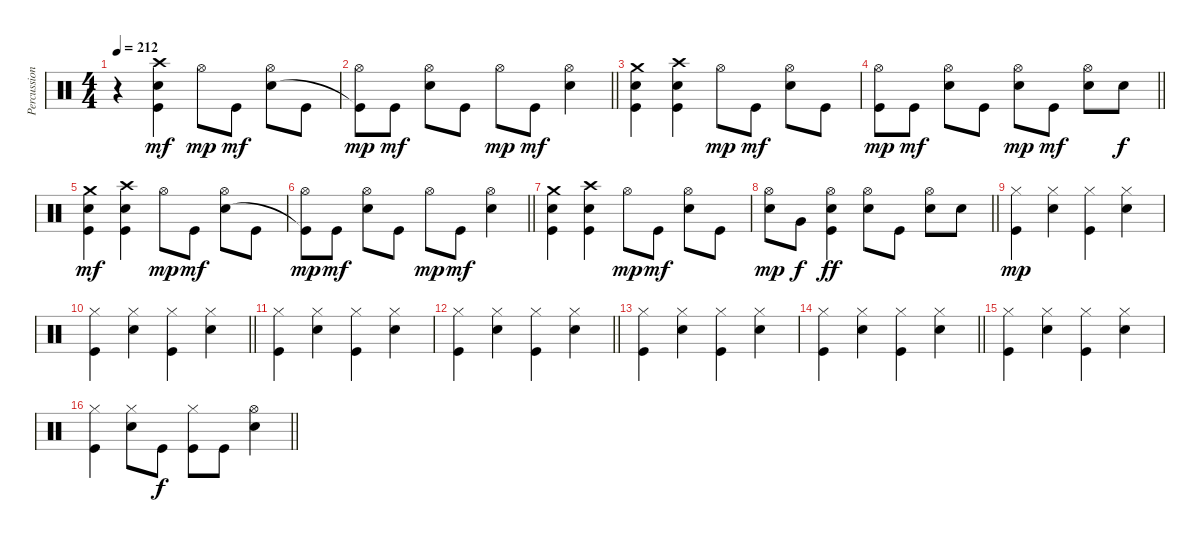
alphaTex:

\track ("Percussion" "Percussion") {instrument percussion}
\staff {score}
\articulation defaults
\ts (4 4)
\tempo 212
\clef neutral
\ks c
r.4{dy f} ("Crash high (hit)" "Snare (hit) 2" "Kick (hit)").4{dy mf} "Hi-Hat (open)".8{dy mp} "Kick (hit)".8{dy mf} ("Hi-Hat (open)" "Snare (hit) 2").8 "Kick (hit)".8 |
\barLineRight lightlight
("Hi-Hat (open)" "Kick (hit)"{t}).8{dy mp} "Kick (hit)".8{dy mf} ("Hi-Hat (open)" "Snare (hit) 2").8 "Kick (hit)".8 "Hi-Hat (open)".8{dy mp} "Kick (hit)".8{dy mf} ("Hi-Hat (open)" "Snare (hit) 2").4 |
("Crash medium (hit)" "Snare (hit) 2" "Kick (hit)").4 ("Crash high (hit)" "Snare (hit) 2" "Kick (hit)").4 "Hi-Hat (open)".8{dy mp} "Kick (hit)".8{dy mf} ("Hi-Hat (open)" "Snare (hit) 2").8 "Kick (hit)".8 |
\barLineRight lightlight
("Hi-Hat (open)" "Kick (hit)").8{dy mp} "Kick (hit)".8{dy mf} ("Hi-Hat (open)" "Snare (hit) 2").8 "Kick (hit)".8 ("Hi-Hat (open)" "Snare (hit) 2").8{dy mp} "Kick (hit)".8{dy mf} ("Hi-Hat (open)" "Snare (hit) 2").8 "Snare (hit) 2".8{dy f} |
("Crash medium (hit)" "Snare (hit) 2" "Kick (hit)").4{dy mf} ("Crash high (hit)" "Snare (hit) 2" "Kick (hit)").4 "Hi-Hat (open)".8{dy mp} "Kick (hit)".8{dy mf} ("Hi-Hat (open)" "Snare (hit) 2").8 "Kick (hit)".8 |
\barLineRight lightlight
("Hi-Hat (open)" "Kick (hit)"{t}).8{dy mp} "Kick (hit)".8{dy mf} ("Hi-Hat (open)" "Snare (hit) 2").8 "Kick (hit)".8 "Hi-Hat (open)".8{dy mp} "Kick (hit)".8{dy mf} ("Hi-Hat (open)" "Snare (hit) 2").4 |
("Crash medium (hit)" "Snare (hit) 2" "Kick (hit)").4 ("Crash high (hit)" "Snare (hit) 2" "Kick (hit)").4 "Hi-Hat (open)".8{dy mp} "Kick (hit)".8{dy mf} ("Hi-Hat (open)" "Snare (hit) 2").8 "Kick (hit)".8 |
\barLineRight lightlight
("Hi-Hat (open)" "Snare (hit) 2").8{dy mp} "Very Low Tom (hit)".8{dy f} ("Hi-Hat (open)" "Snare (hit) 2" "Kick (hit)").4{dy ff} ("Hi-Hat (open)" "Snare (hit) 2").8 "Kick (hit)".8 ("Hi-Hat (open)" "Snare (hit) 2").8 "Snare (hit) 2".8 |
("Hi-Hat (closed)" "Kick (hit)").4{dy mp} ("Hi-Hat (closed)" "Snare (hit) 2").4 ("Hi-Hat (closed)" "Kick (hit)").4 ("Hi-Hat (closed)" "Snare (hit) 2").4 |
\barLineRight lightlight
("Hi-Hat (closed)" "Kick (hit)").4 ("Hi-Hat (closed)" "Snare (hit) 2").4 ("Hi-Hat (closed)" "Kick (hit)").4 ("Hi-Hat (closed)" "Snare (hit) 2").4 |
("Hi-Hat (closed)" "Kick (hit)").4 ("Hi-Hat (closed)" "Snare (hit) 2").4 ("Hi-Hat (closed)" "Kick (hit)").4 ("Hi-Hat (closed)" "Snare (hit) 2").4 |
\barLineRight lightlight
("Hi-Hat (closed)" "Kick (hit)").4 ("Hi-Hat (closed)" "Snare (hit) 2").4 ("Hi-Hat (closed)" "Kick (hit)").4 ("Hi-Hat (closed)" "Snare (hit) 2").4 |
("Hi-Hat (closed)" "Kick (hit)").4 ("Hi-Hat (closed)" "Snare (hit) 2").4 ("Hi-Hat (closed)" "Kick (hit)").4 ("Hi-Hat (closed)" "Snare (hit) 2").4 |
\barLineRight lightlight
("Hi-Hat (closed)" "Kick (hit)").4 ("Hi-Hat (closed)" "Snare (hit) 2").4 ("Hi-Hat (closed)" "Kick (hit)").4 ("Hi-Hat (closed)" "Snare (hit) 2").4 |
("Hi-Hat (closed)" "Kick (hit)").4 ("Hi-Hat (closed)" "Snare (hit) 2").4 ("Hi-Hat (closed)" "Kick (hit)").4 ("Hi-Hat (closed)" "Snare (hit) 2").4 |
\barLineRight lightlight
("Hi-Hat (closed)" "Kick (hit)").4 ("Hi-Hat (closed)" "Snare (hit) 2").8 "Kick (hit)".8{dy f} ("Hi-Hat (closed)" "Kick (hit)").8 "Kick (hit)".8 ("Hi-Hat (open)" "Snare (hit) 2").4
